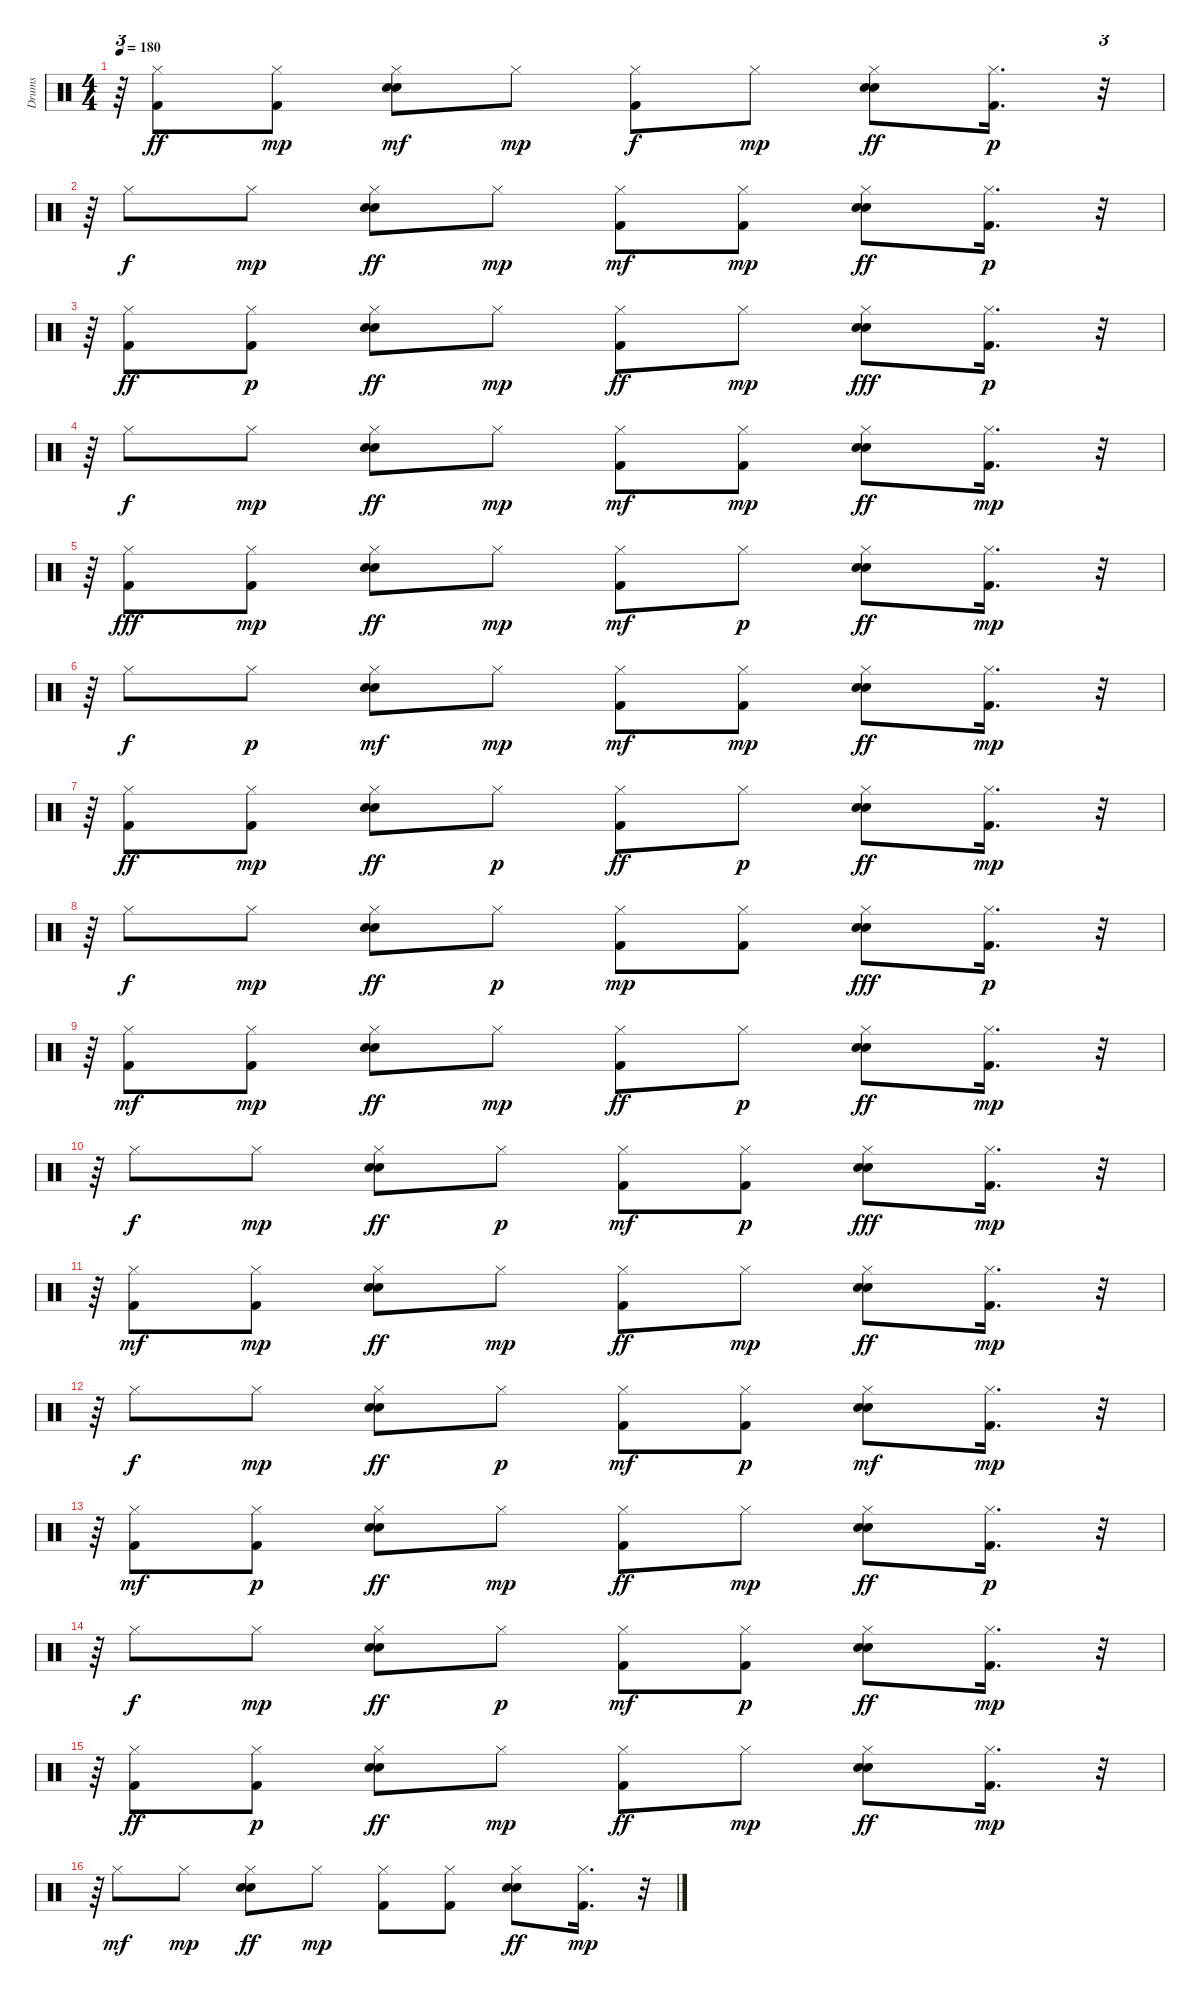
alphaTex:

\track ("Drums" "Drums") {instrument percussion}
\staff {score}
\articulation defaults
\ts (4 4)
\tempo 180
\clef neutral
\ks c
r.64{tu (3 2) dy mp} ("Kick (hit) 2" "Hi-Hat (closed)").8{dy ff} ("Kick (hit) 2" "Hi-Hat (closed)").8{dy mp} ("Electric Snare (hit)" "Snare (hit) 2" "Hi-Hat (closed)").8{dy mf} "Hi-Hat (closed)".8{dy mp} ("Kick (hit) 2" "Hi-Hat (closed)").8{dy f} "Hi-Hat (closed)".8{dy mp} ("Electric Snare (hit)" "Snare (hit) 2" "Hi-Hat (closed)").8{dy ff} ("Kick (hit) 2" "Hi-Hat (closed)").16{d dy p} r.32{tu (3 2)} |
r.64{tu (3 2)} "Hi-Hat (closed)".8{dy f} "Hi-Hat (closed)".8{dy mp} ("Electric Snare (hit)" "Snare (hit) 2" "Hi-Hat (closed)").8{dy ff} "Hi-Hat (closed)".8{dy mp} ("Kick (hit) 2" "Hi-Hat (closed)").8{dy mf} ("Kick (hit) 2" "Hi-Hat (closed)").8{dy mp} ("Electric Snare (hit)" "Snare (hit) 2" "Hi-Hat (closed)").8{dy ff} ("Kick (hit) 2" "Hi-Hat (closed)").16{d dy p} r.32{tu (3 2)} |
r.64{tu (3 2)} ("Kick (hit) 2" "Hi-Hat (closed)").8{dy ff} ("Kick (hit) 2" "Hi-Hat (closed)").8{dy p} ("Electric Snare (hit)" "Snare (hit) 2" "Hi-Hat (closed)").8{dy ff} "Hi-Hat (closed)".8{dy mp} ("Kick (hit) 2" "Hi-Hat (closed)").8{dy ff} "Hi-Hat (closed)".8{dy mp} ("Electric Snare (hit)" "Snare (hit) 2" "Hi-Hat (closed)").8{dy fff} ("Kick (hit) 2" "Hi-Hat (closed)").16{d dy p} r.32{tu (3 2)} |
r.64{tu (3 2)} "Hi-Hat (closed)".8{dy f} "Hi-Hat (closed)".8{dy mp} ("Electric Snare (hit)" "Snare (hit) 2" "Hi-Hat (closed)").8{dy ff} "Hi-Hat (closed)".8{dy mp} ("Kick (hit) 2" "Hi-Hat (closed)").8{dy mf} ("Kick (hit) 2" "Hi-Hat (closed)").8{dy mp} ("Electric Snare (hit)" "Snare (hit) 2" "Hi-Hat (closed)").8{dy ff} ("Kick (hit) 2" "Hi-Hat (closed)").16{d dy mp} r.32{tu (3 2)} |
r.64{tu (3 2)} ("Kick (hit) 2" "Hi-Hat (closed)").8{dy fff} ("Kick (hit) 2" "Hi-Hat (closed)").8{dy mp} ("Electric Snare (hit)" "Snare (hit) 2" "Hi-Hat (closed)").8{dy ff} "Hi-Hat (closed)".8{dy mp} ("Kick (hit) 2" "Hi-Hat (closed)").8{dy mf} "Hi-Hat (closed)".8{dy p} ("Electric Snare (hit)" "Snare (hit) 2" "Hi-Hat (closed)").8{dy ff} ("Kick (hit) 2" "Hi-Hat (closed)").16{d dy mp} r.32{tu (3 2)} |
r.64{tu (3 2)} "Hi-Hat (closed)".8{dy f} "Hi-Hat (closed)".8{dy p} ("Electric Snare (hit)" "Snare (hit) 2" "Hi-Hat (closed)").8{dy mf} "Hi-Hat (closed)".8{dy mp} ("Kick (hit) 2" "Hi-Hat (closed)").8{dy mf} ("Kick (hit) 2" "Hi-Hat (closed)").8{dy mp} ("Electric Snare (hit)" "Snare (hit) 2" "Hi-Hat (closed)").8{dy ff} ("Kick (hit) 2" "Hi-Hat (closed)").16{d dy mp} r.32{tu (3 2)} |
r.64{tu (3 2)} ("Kick (hit) 2" "Hi-Hat (closed)").8{dy ff} ("Kick (hit) 2" "Hi-Hat (closed)").8{dy mp} ("Electric Snare (hit)" "Snare (hit) 2" "Hi-Hat (closed)").8{dy ff} "Hi-Hat (closed)".8{dy p} ("Kick (hit) 2" "Hi-Hat (closed)").8{dy ff} "Hi-Hat (closed)".8{dy p} ("Electric Snare (hit)" "Snare (hit) 2" "Hi-Hat (closed)").8{dy ff} ("Kick (hit) 2" "Hi-Hat (closed)").16{d dy mp} r.32{tu (3 2)} |
r.64{tu (3 2)} "Hi-Hat (closed)".8{dy f} "Hi-Hat (closed)".8{dy mp} ("Electric Snare (hit)" "Snare (hit) 2" "Hi-Hat (closed)").8{dy ff} "Hi-Hat (closed)".8{dy p} ("Kick (hit) 2" "Hi-Hat (closed)").8{dy mp} ("Kick (hit) 2" "Hi-Hat (closed)").8 ("Electric Snare (hit)" "Snare (hit) 2" "Hi-Hat (closed)").8{dy fff} ("Kick (hit) 2" "Hi-Hat (closed)").16{d dy p} r.32{tu (3 2)} |
r.64{tu (3 2)} ("Kick (hit) 2" "Hi-Hat (closed)").8{dy mf} ("Kick (hit) 2" "Hi-Hat (closed)").8{dy mp} ("Electric Snare (hit)" "Snare (hit) 2" "Hi-Hat (closed)").8{dy ff} "Hi-Hat (closed)".8{dy mp} ("Kick (hit) 2" "Hi-Hat (closed)").8{dy ff} "Hi-Hat (closed)".8{dy p} ("Electric Snare (hit)" "Snare (hit) 2" "Hi-Hat (closed)").8{dy ff} ("Kick (hit) 2" "Hi-Hat (closed)").16{d dy mp} r.32{tu (3 2)} |
r.64{tu (3 2)} "Hi-Hat (closed)".8{dy f} "Hi-Hat (closed)".8{dy mp} ("Electric Snare (hit)" "Snare (hit) 2" "Hi-Hat (closed)").8{dy ff} "Hi-Hat (closed)".8{dy p} ("Kick (hit) 2" "Hi-Hat (closed)").8{dy mf} ("Kick (hit) 2" "Hi-Hat (closed)").8{dy p} ("Electric Snare (hit)" "Snare (hit) 2" "Hi-Hat (closed)").8{dy fff} ("Kick (hit) 2" "Hi-Hat (closed)").16{d dy mp} r.32{tu (3 2)} |
r.64{tu (3 2)} ("Kick (hit) 2" "Hi-Hat (closed)").8{dy mf} ("Kick (hit) 2" "Hi-Hat (closed)").8{dy mp} ("Electric Snare (hit)" "Snare (hit) 2" "Hi-Hat (closed)").8{dy ff} "Hi-Hat (closed)".8{dy mp} ("Kick (hit) 2" "Hi-Hat (closed)").8{dy ff} "Hi-Hat (closed)".8{dy mp} ("Electric Snare (hit)" "Snare (hit) 2" "Hi-Hat (closed)").8{dy ff} ("Kick (hit) 2" "Hi-Hat (closed)").16{d dy mp} r.32{tu (3 2)} |
r.64{tu (3 2)} "Hi-Hat (closed)".8{dy f} "Hi-Hat (closed)".8{dy mp} ("Electric Snare (hit)" "Snare (hit) 2" "Hi-Hat (closed)").8{dy ff} "Hi-Hat (closed)".8{dy p} ("Kick (hit) 2" "Hi-Hat (closed)").8{dy mf} ("Kick (hit) 2" "Hi-Hat (closed)").8{dy p} ("Electric Snare (hit)" "Snare (hit) 2" "Hi-Hat (closed)").8{dy mf} ("Kick (hit) 2" "Hi-Hat (closed)").16{d dy mp} r.32{tu (3 2)} |
r.64{tu (3 2)} ("Kick (hit) 2" "Hi-Hat (closed)").8{dy mf} ("Kick (hit) 2" "Hi-Hat (closed)").8{dy p} ("Electric Snare (hit)" "Snare (hit) 2" "Hi-Hat (closed)").8{dy ff} "Hi-Hat (closed)".8{dy mp} ("Kick (hit) 2" "Hi-Hat (closed)").8{dy ff} "Hi-Hat (closed)".8{dy mp} ("Electric Snare (hit)" "Snare (hit) 2" "Hi-Hat (closed)").8{dy ff} ("Kick (hit) 2" "Hi-Hat (closed)").16{d dy p} r.32{tu (3 2)} |
r.64{tu (3 2)} "Hi-Hat (closed)".8{dy f} "Hi-Hat (closed)".8{dy mp} ("Electric Snare (hit)" "Snare (hit) 2" "Hi-Hat (closed)").8{dy ff} "Hi-Hat (closed)".8{dy p} ("Kick (hit) 2" "Hi-Hat (closed)").8{dy mf} ("Kick (hit) 2" "Hi-Hat (closed)").8{dy p} ("Electric Snare (hit)" "Snare (hit) 2" "Hi-Hat (closed)").8{dy ff} ("Kick (hit) 2" "Hi-Hat (closed)").16{d dy mp} r.32{tu (3 2)} |
r.64{tu (3 2)} ("Kick (hit) 2" "Hi-Hat (closed)").8{dy ff} ("Kick (hit) 2" "Hi-Hat (closed)").8{dy p} ("Electric Snare (hit)" "Snare (hit) 2" "Hi-Hat (closed)").8{dy ff} "Hi-Hat (closed)".8{dy mp} ("Kick (hit) 2" "Hi-Hat (closed)").8{dy ff} "Hi-Hat (closed)".8{dy mp} ("Electric Snare (hit)" "Snare (hit) 2" "Hi-Hat (closed)").8{dy ff} ("Kick (hit) 2" "Hi-Hat (closed)").16{d dy mp} r.32{tu (3 2)} |
r.64{tu (3 2)} "Hi-Hat (closed)".8{dy mf} "Hi-Hat (closed)".8{dy mp} ("Electric Snare (hit)" "Snare (hit) 2" "Hi-Hat (closed)").8{dy ff} "Hi-Hat (closed)".8{dy mp} ("Kick (hit) 2" "Hi-Hat (closed)").8 ("Kick (hit) 2" "Hi-Hat (closed)").8 ("Electric Snare (hit)" "Snare (hit) 2" "Hi-Hat (closed)").8{dy ff} ("Kick (hit) 2" "Hi-Hat (closed)").16{d dy mp} r.32{tu (3 2)}
